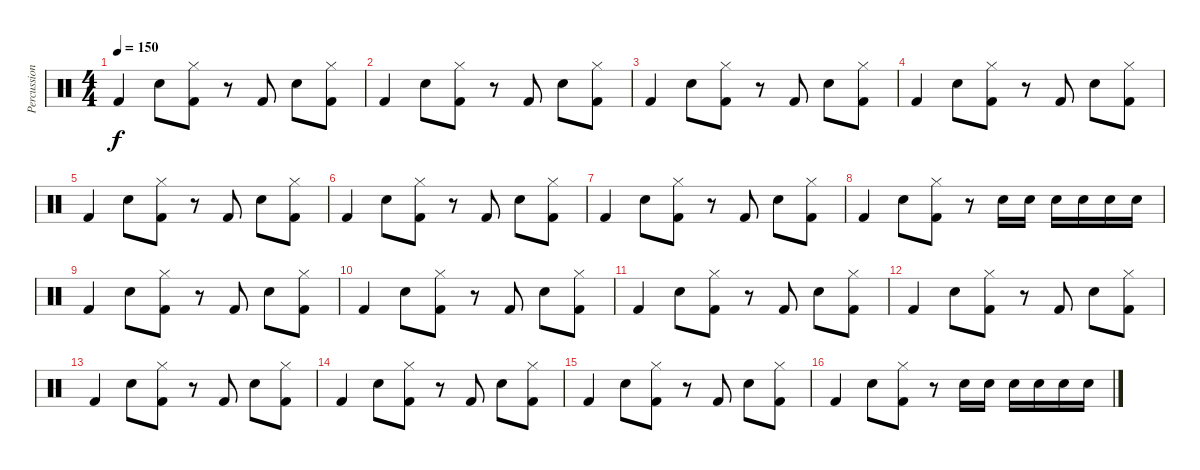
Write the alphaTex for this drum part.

\track ("Percussion" "Percussion") {instrument percussion}
\staff {score}
\articulation defaults
\ts (4 4)
\tempo 150
\clef neutral
\ks c "Kick (hit) 2".4{dy f} "Snare (hit) 2".8
("Kick (hit) 2" "Hi-Hat (closed)").8 r.8 "Kick (hit) 2".8 "Snare (hit) 2".8 ("Kick (hit) 2" "Hi-Hat (closed)").8 |
"Kick (hit) 2".4 "Snare (hit) 2".8 ("Kick (hit) 2" "Hi-Hat (closed)").8 r.8 "Kick (hit) 2".8 "Snare (hit) 2".8 ("Kick (hit) 2" "Hi-Hat (closed)").8 |
"Kick (hit) 2".4 "Snare (hit) 2".8 ("Kick (hit) 2" "Hi-Hat (closed)").8 r.8 "Kick (hit) 2".8 "Snare (hit) 2".8 ("Kick (hit) 2" "Hi-Hat (closed)").8 |
"Kick (hit) 2".4 "Snare (hit) 2".8 ("Kick (hit) 2" "Hi-Hat (closed)").8 r.8 "Kick (hit) 2".8 "Snare (hit) 2".8 ("Kick (hit) 2" "Hi-Hat (closed)").8 |
"Kick (hit) 2".4 "Snare (hit) 2".8 ("Kick (hit) 2" "Hi-Hat (closed)").8 r.8 "Kick (hit) 2".8 "Snare (hit) 2".8 ("Kick (hit) 2" "Hi-Hat (closed)").8 |
"Kick (hit) 2".4 "Snare (hit) 2".8 ("Kick (hit) 2" "Hi-Hat (closed)").8 r.8 "Kick (hit) 2".8 "Snare (hit) 2".8 ("Kick (hit) 2" "Hi-Hat (closed)").8 |
"Kick (hit) 2".4 "Snare (hit) 2".8 ("Kick (hit) 2" "Hi-Hat (closed)").8 r.8 "Kick (hit) 2".8 "Snare (hit) 2".8 ("Kick (hit) 2" "Hi-Hat (closed)").8 |
"Kick (hit) 2".4 "Snare (hit) 2".8 ("Kick (hit) 2" "Hi-Hat (closed)").8 r.8 "Snare (hit) 2".16 "Snare (hit) 2".16 "Snare (hit) 2".16 "Snare (hit) 2".16 "Snare (hit) 2".16 "Snare (hit) 2".16 |
"Kick (hit) 2".4 "Snare (hit) 2".8 ("Kick (hit) 2" "Hi-Hat (closed)").8 r.8 "Kick (hit) 2".8 "Snare (hit) 2".8 ("Kick (hit) 2" "Hi-Hat (closed)").8 |
"Kick (hit) 2".4 "Snare (hit) 2".8 ("Kick (hit) 2" "Hi-Hat (closed)").8 r.8 "Kick (hit) 2".8 "Snare (hit) 2".8 ("Kick (hit) 2" "Hi-Hat (closed)").8 |
"Kick (hit) 2".4 "Snare (hit) 2".8 ("Kick (hit) 2" "Hi-Hat (closed)").8 r.8 "Kick (hit) 2".8 "Snare (hit) 2".8 ("Kick (hit) 2" "Hi-Hat (closed)").8 |
"Kick (hit) 2".4 "Snare (hit) 2".8 ("Kick (hit) 2" "Hi-Hat (closed)").8 r.8 "Kick (hit) 2".8 "Snare (hit) 2".8 ("Kick (hit) 2" "Hi-Hat (closed)").8 |
"Kick (hit) 2".4 "Snare (hit) 2".8 ("Kick (hit) 2" "Hi-Hat (closed)").8 r.8 "Kick (hit) 2".8 "Snare (hit) 2".8 ("Kick (hit) 2" "Hi-Hat (closed)").8 |
"Kick (hit) 2".4 "Snare (hit) 2".8 ("Kick (hit) 2" "Hi-Hat (closed)").8 r.8 "Kick (hit) 2".8 "Snare (hit) 2".8 ("Kick (hit) 2" "Hi-Hat (closed)").8 |
"Kick (hit) 2".4 "Snare (hit) 2".8 ("Kick (hit) 2" "Hi-Hat (closed)").8 r.8 "Kick (hit) 2".8 "Snare (hit) 2".8 ("Kick (hit) 2" "Hi-Hat (closed)").8 |
"Kick (hit) 2".4 "Snare (hit) 2".8 ("Kick (hit) 2" "Hi-Hat (closed)").8 r.8 "Snare (hit) 2".16 "Snare (hit) 2".16 "Snare (hit) 2".16 "Snare (hit) 2".16 "Snare (hit) 2".16 "Snare (hit) 2".16
